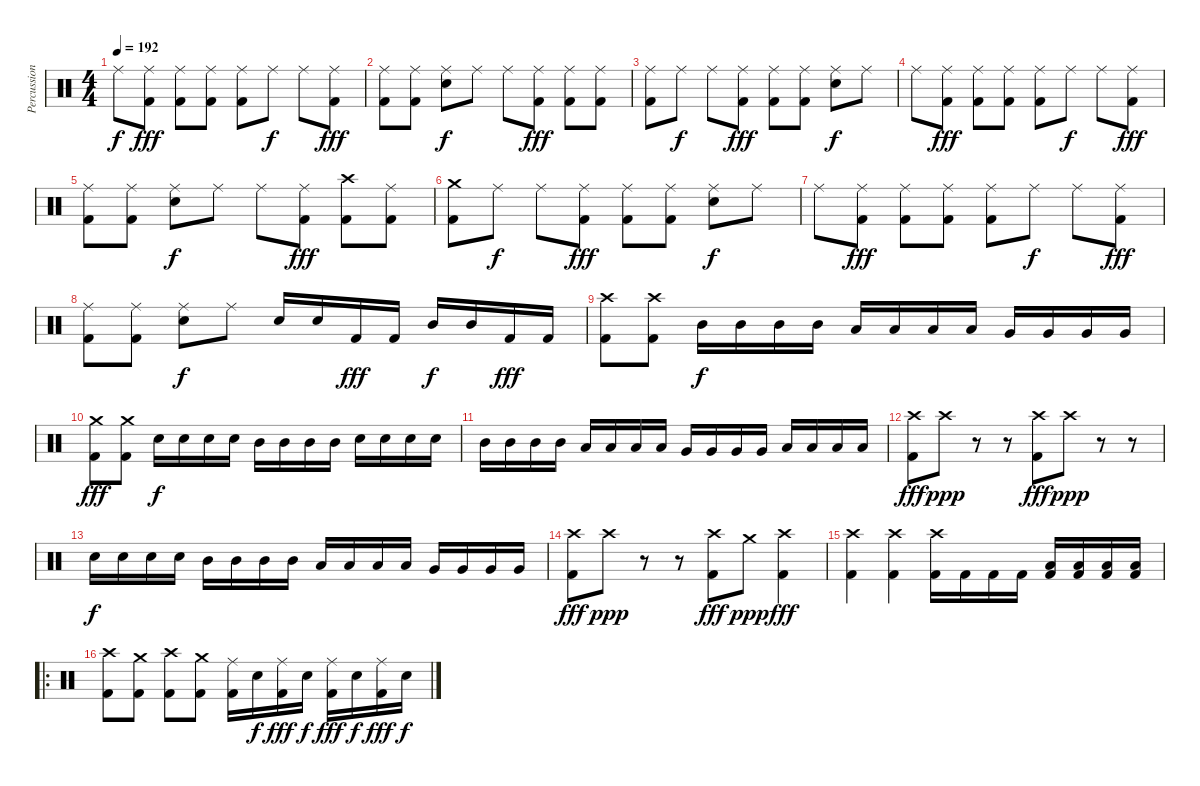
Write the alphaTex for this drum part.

\track ("Percussion" "Percussion") {instrument percussion}
\staff {score}
\articulation defaults
\ts (4 4)
\tempo 192
\clef neutral
\ks c "Ride (middle)".8{dy f}
("Ride (middle)" "Kick (hit) 2").8{dy fff} ("Ride (middle)" "Kick (hit) 2").8 ("Ride (middle)" "Kick (hit) 2").8 ("Ride (middle)" "Kick (hit) 2").8 "Ride (middle)".8{dy f} "Ride (middle)".8 ("Ride (middle)" "Kick (hit) 2").8{dy fff} |
("Ride (middle)" "Kick (hit) 2").8 ("Ride (middle)" "Kick (hit) 2").8 ("Ride (middle)" "Electric Snare (hit)").8{dy f} "Ride (middle)".8 "Ride (middle)".8 ("Ride (middle)" "Kick (hit) 2").8{dy fff} ("Ride (middle)" "Kick (hit) 2").8 ("Ride (middle)" "Kick (hit) 2").8 |
("Ride (middle)" "Kick (hit) 2").8 "Ride (middle)".8{dy f} "Ride (middle)".8 ("Ride (middle)" "Kick (hit) 2").8{dy fff} ("Ride (middle)" "Kick (hit) 2").8 ("Ride (middle)" "Kick (hit) 2").8 ("Ride (middle)" "Electric Snare (hit)").8{dy f} "Ride (middle)".8 |
"Ride (middle)".8 ("Ride (middle)" "Kick (hit) 2").8{dy fff} ("Ride (middle)" "Kick (hit) 2").8 ("Ride (middle)" "Kick (hit) 2").8 ("Ride (middle)" "Kick (hit) 2").8 "Ride (middle)".8{dy f} "Ride (middle)".8 ("Ride (middle)" "Kick (hit) 2").8{dy fff} |
("Ride (middle)" "Kick (hit) 2").8 ("Ride (middle)" "Kick (hit) 2").8 ("Ride (middle)" "Electric Snare (hit)").8{dy f} "Ride (middle)".8 "Ride (middle)".8 ("Ride (middle)" "Kick (hit) 2").8{dy fff} ("Crash high (hit)" "Kick (hit) 2").8 ("Ride (middle)" "Kick (hit) 2").8 |
("Crash medium (hit)" "Kick (hit) 2").8 "Ride (middle)".8{dy f} "Ride (middle)".8 ("Ride (middle)" "Kick (hit) 2").8{dy fff} ("Ride (middle)" "Kick (hit) 2").8 ("Ride (middle)" "Kick (hit) 2").8 ("Ride (middle)" "Electric Snare (hit)").8{dy f} "Ride (middle)".8 |
"Ride (middle)".8 ("Ride (middle)" "Kick (hit) 2").8{dy fff} ("Ride (middle)" "Kick (hit) 2").8 ("Ride (middle)" "Kick (hit) 2").8 ("Ride (middle)" "Kick (hit) 2").8 "Ride (middle)".8{dy f} "Ride (middle)".8 ("Ride (middle)" "Kick (hit) 2").8{dy fff} |
("Ride (middle)" "Kick (hit) 2").8 ("Ride (middle)" "Kick (hit) 2").8 ("Ride (middle)" "Electric Snare (hit)").8{dy f} "Ride (middle)".8 "Electric Snare (hit)".16 "Electric Snare (hit)".16 "Kick (hit) 2".16{dy fff} "Kick (hit) 2".16 "Mid Tom (hit)".16{dy f} "Mid Tom (hit)".16 "Kick (hit) 2".16{dy fff} "Kick (hit) 2".16 |
("Crash high (hit)" "Kick (hit) 2").8 ("Crash high (hit)" "Kick (hit) 2").8 "Mid Tom (hit)".16{dy f} "Mid Tom (hit)".16 "Mid Tom (hit)".16 "Mid Tom (hit)".16 "Low Tom (hit)".16 "Low Tom (hit)".16 "Low Tom (hit)".16 "Low Tom (hit)".16 "Very Low Tom (hit)".16 "Very Low Tom (hit)".16 "Very Low Tom (hit)".16 "Very Low Tom (hit)".16 |
("Crash medium (hit)" "Kick (hit) 2").8{dy fff} ("Crash medium (hit)" "Kick (hit) 2").8 "Electric Snare (hit)".16{dy f} "Electric Snare (hit)".16 "Electric Snare (hit)".16 "Electric Snare (hit)".16 "Mid Tom (hit)".16 "Mid Tom (hit)".16 "Mid Tom (hit)".16 "Mid Tom (hit)".16 "Electric Snare (hit)".16 "Electric Snare (hit)".16 "Electric Snare (hit)".16 "Electric Snare (hit)".16 |
"Mid Tom (hit)".16 "Mid Tom (hit)".16 "Mid Tom (hit)".16 "Mid Tom (hit)".16 "Low Tom (hit)".16 "Low Tom (hit)".16 "Low Tom (hit)".16 "Low Tom (hit)".16 "Very Low Tom (hit)".16 "Very Low Tom (hit)".16 "Very Low Tom (hit)".16 "Very Low Tom (hit)".16 "Low Floor Tom (hit)".16 "Low Floor Tom (hit)".16 "Low Floor Tom (hit)".16 "Low Floor Tom (hit)".16 |
("Crash high (hit)" "Kick (hit) 2").8{dy fff} "Crash high (hit)".8{dy ppp} r.8 r.8 ("Crash high (hit)" "Kick (hit) 2").8{dy fff} "Crash high (hit)".8{dy ppp} r.8 r.8 |
"Electric Snare (hit)".16{dy f} "Electric Snare (hit)".16 "Electric Snare (hit)".16 "Electric Snare (hit)".16 "Mid Tom (hit)".16 "Mid Tom (hit)".16 "Mid Tom (hit)".16 "Mid Tom (hit)".16 "Low Tom (hit)".16 "Low Tom (hit)".16 "Low Tom (hit)".16 "Low Tom (hit)".16 "Very Low Tom (hit)".16 "Very Low Tom (hit)".16 "Very Low Tom (hit)".16 "Very Low Tom (hit)".16 |
("Crash high (hit)" "Kick (hit) 2").8{dy fff} "Crash high (hit)".8{dy ppp} r.8 r.8 ("Crash high (hit)" "Kick (hit) 2").8{dy fff} "Crash medium (hit)".8{dy ppp} ("Crash high (hit)" "Kick (hit) 2").4{dy fff} |
("Crash high (hit)" "Kick (hit) 2").4 ("Crash high (hit)" "Kick (hit) 2").4 ("Crash high (hit)" "Kick (hit) 2").16 "Kick (hit) 2".16 "Kick (hit) 2".16 "Kick (hit) 2".16 ("Low Tom (hit)" "Kick (hit) 2").16 ("Low Tom (hit)" "Kick (hit) 2").16 ("Low Tom (hit)" "Kick (hit) 2").16 ("Low Tom (hit)" "Kick (hit) 2").16 |
\ro
("Crash high (hit)" "Kick (hit) 2").8 ("Crash medium (hit)" "Kick (hit) 2").8 ("Crash high (hit)" "Kick (hit) 2").8 ("Crash medium (hit)" "Kick (hit) 2").8 ("Ride (middle)" "Kick (hit) 2").16 "Electric Snare (hit)".16{dy f} ("Ride (middle)" "Kick (hit) 2").16{dy fff} "Electric Snare (hit)".16{dy f} ("Ride (middle)" "Kick (hit) 2").16{dy fff} "Electric Snare (hit)".16{dy f} ("Ride (middle)" "Kick (hit) 2").16{dy fff} "Electric Snare (hit)".16{dy f}
